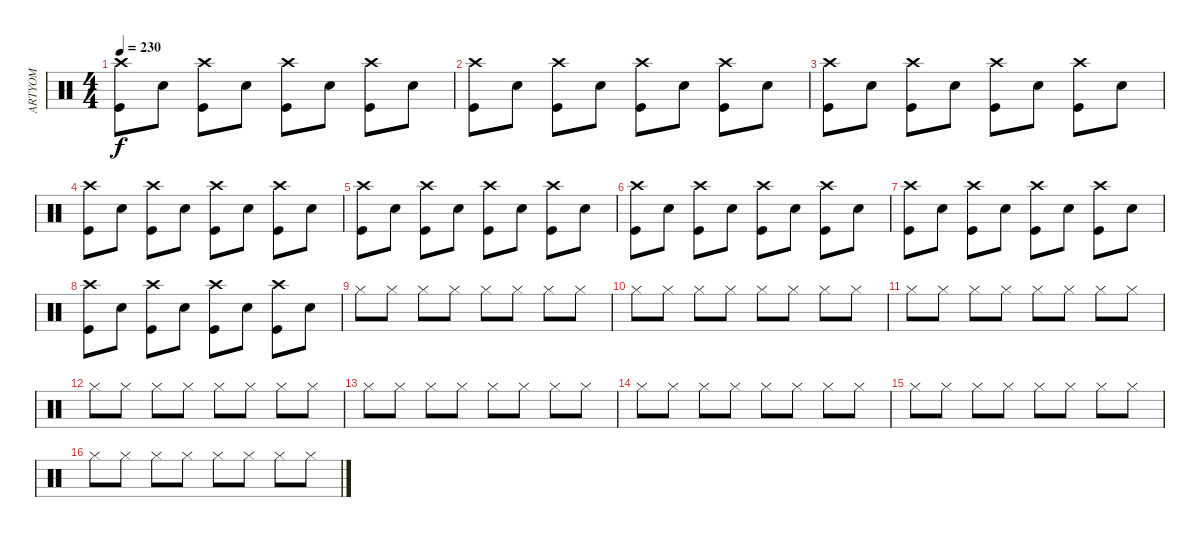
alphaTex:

\track ("ARTYOM" "ARTYOM") {instrument percussion}
\staff {score}
\articulation defaults
\ts (4 4)
\tempo 230
\clef neutral
\ks c
("Kick (hit)" "Crash high (hit)").8{dy f} "Snare (hit) 2".8 ("Kick (hit)" "Crash high (hit)").8 "Snare (hit) 2".8 ("Kick (hit)" "Crash high (hit)").8 "Snare (hit) 2".8 ("Kick (hit)" "Crash high (hit)").8 "Snare (hit) 2".8 |
("Kick (hit)" "Crash high (hit)").8 "Snare (hit) 2".8 ("Kick (hit)" "Crash high (hit)").8 "Snare (hit) 2".8 ("Kick (hit)" "Crash high (hit)").8 "Snare (hit) 2".8 ("Kick (hit)" "Crash high (hit)").8 "Snare (hit) 2".8 |
("Kick (hit)" "Crash high (hit)").8 "Snare (hit) 2".8 ("Kick (hit)" "Crash high (hit)").8 "Snare (hit) 2".8 ("Kick (hit)" "Crash high (hit)").8 "Snare (hit) 2".8 ("Kick (hit)" "Crash high (hit)").8 "Snare (hit) 2".8 |
("Kick (hit)" "Crash high (hit)").8 "Snare (hit) 2".8 ("Kick (hit)" "Crash high (hit)").8 "Snare (hit) 2".8 ("Kick (hit)" "Crash high (hit)").8 "Snare (hit) 2".8 ("Kick (hit)" "Crash high (hit)").8 "Snare (hit) 2".8 |
("Kick (hit)" "Crash high (hit)").8 "Snare (hit) 2".8 ("Kick (hit)" "Crash high (hit)").8 "Snare (hit) 2".8 ("Kick (hit)" "Crash high (hit)").8 "Snare (hit) 2".8 ("Kick (hit)" "Crash high (hit)").8 "Snare (hit) 2".8 |
("Kick (hit)" "Crash high (hit)").8 "Snare (hit) 2".8 ("Kick (hit)" "Crash high (hit)").8 "Snare (hit) 2".8 ("Kick (hit)" "Crash high (hit)").8 "Snare (hit) 2".8 ("Kick (hit)" "Crash high (hit)").8 "Snare (hit) 2".8 |
("Kick (hit)" "Crash high (hit)").8 "Snare (hit) 2".8 ("Kick (hit)" "Crash high (hit)").8 "Snare (hit) 2".8 ("Kick (hit)" "Crash high (hit)").8 "Snare (hit) 2".8 ("Kick (hit)" "Crash high (hit)").8 "Snare (hit) 2".8 |
("Kick (hit)" "Crash high (hit)").8 "Snare (hit) 2".8 ("Kick (hit)" "Crash high (hit)").8 "Snare (hit) 2".8 ("Kick (hit)" "Crash high (hit)").8 "Snare (hit) 2".8 ("Kick (hit)" "Crash high (hit)").8 "Snare (hit) 2".8 |
"Hi-Hat (closed)".8 "Hi-Hat (closed)".8 "Hi-Hat (closed)".8 "Hi-Hat (closed)".8 "Hi-Hat (closed)".8 "Hi-Hat (closed)".8 "Hi-Hat (closed)".8 "Hi-Hat (closed)".8 |
"Hi-Hat (closed)".8 "Hi-Hat (closed)".8 "Hi-Hat (closed)".8 "Hi-Hat (closed)".8 "Hi-Hat (closed)".8 "Hi-Hat (closed)".8 "Hi-Hat (closed)".8 "Hi-Hat (closed)".8 |
"Hi-Hat (closed)".8 "Hi-Hat (closed)".8 "Hi-Hat (closed)".8 "Hi-Hat (closed)".8 "Hi-Hat (closed)".8 "Hi-Hat (closed)".8 "Hi-Hat (closed)".8 "Hi-Hat (closed)".8 |
"Hi-Hat (closed)".8 "Hi-Hat (closed)".8 "Hi-Hat (closed)".8 "Hi-Hat (closed)".8 "Hi-Hat (closed)".8 "Hi-Hat (closed)".8 "Hi-Hat (closed)".8 "Hi-Hat (closed)".8 |
"Hi-Hat (closed)".8 "Hi-Hat (closed)".8 "Hi-Hat (closed)".8 "Hi-Hat (closed)".8 "Hi-Hat (closed)".8 "Hi-Hat (closed)".8 "Hi-Hat (closed)".8 "Hi-Hat (closed)".8 |
"Hi-Hat (closed)".8 "Hi-Hat (closed)".8 "Hi-Hat (closed)".8 "Hi-Hat (closed)".8 "Hi-Hat (closed)".8 "Hi-Hat (closed)".8 "Hi-Hat (closed)".8 "Hi-Hat (closed)".8 |
"Hi-Hat (closed)".8 "Hi-Hat (closed)".8 "Hi-Hat (closed)".8 "Hi-Hat (closed)".8 "Hi-Hat (closed)".8 "Hi-Hat (closed)".8 "Hi-Hat (closed)".8 "Hi-Hat (closed)".8 |
"Hi-Hat (closed)".8 "Hi-Hat (closed)".8 "Hi-Hat (closed)".8 "Hi-Hat (closed)".8 "Hi-Hat (closed)".8 "Hi-Hat (closed)".8 "Hi-Hat (closed)".8 "Hi-Hat (closed)".8
